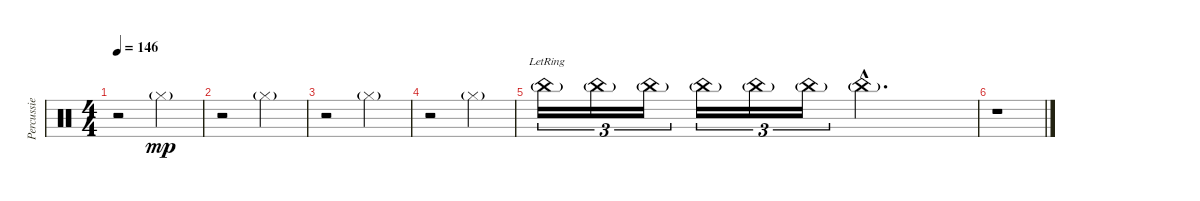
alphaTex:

\track ("Percussie" "Percussie") {instrument percussion}
\staff {score}
\articulation defaults
\ts (4 4)
\tempo 146
\clef neutral
\ks c
r.2{dy mp} "Hi-Hat (closed)"{g}.2 |
r.2 "Hi-Hat (closed)"{g}.2 |
r.2 "Hi-Hat (closed)"{g}.2 |
r.2 "Hi-Hat (closed)"{g}.2 |
"China (hit)"{g lr}.16{tu (3 2)} "China (hit)"{g}.16{tu (3 2)} "China (hit)"{g}.16{tu (3 2)} "China (hit)"{g}.16{tu (3 2)} "China (hit)"{g}.16{tu (3 2)} "China (hit)"{g}.16{tu (3 2)} "China (hit)"{g hac}.2{d} |
r.1
